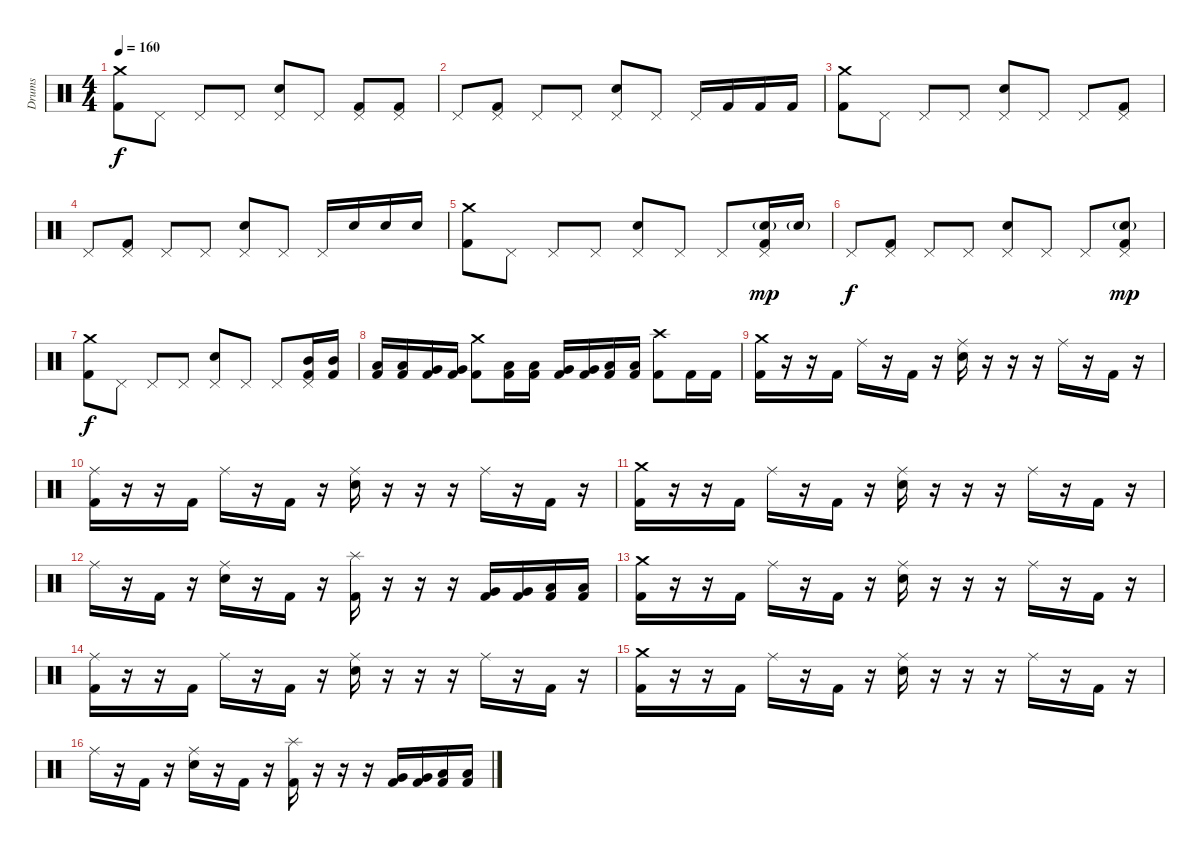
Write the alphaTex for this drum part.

\track ("Drums" "Drums") {instrument percussion}
\staff {score}
\articulation defaults
\ts (4 4)
\section ("" "")
\tempo 160
\clef neutral
\ks c
("Crash medium (hit)" "Kick (hit) 2").8{dy f} "Pedal Hi-Hat (hit)".8 "Pedal Hi-Hat (hit)".8 "Pedal Hi-Hat (hit)".8 ("Pedal Hi-Hat (hit)" "Electric Snare (hit)").8 "Pedal Hi-Hat (hit)".8 ("Pedal Hi-Hat (hit)" "Kick (hit) 2").8 ("Pedal Hi-Hat (hit)" "Kick (hit) 2").8 |
"Pedal Hi-Hat (hit)".8 ("Pedal Hi-Hat (hit)" "Kick (hit) 2").8 "Pedal Hi-Hat (hit)".8 "Pedal Hi-Hat (hit)".8 ("Pedal Hi-Hat (hit)" "Electric Snare (hit)").8 "Pedal Hi-Hat (hit)".8 "Pedal Hi-Hat (hit)".16 "Kick (hit) 2".16 "Kick (hit) 2".16 "Kick (hit) 2".16 |
("Crash medium (hit)" "Kick (hit) 2").8 "Pedal Hi-Hat (hit)".8 "Pedal Hi-Hat (hit)".8 "Pedal Hi-Hat (hit)".8 ("Pedal Hi-Hat (hit)" "Electric Snare (hit)").8 "Pedal Hi-Hat (hit)".8 "Pedal Hi-Hat (hit)".8 ("Pedal Hi-Hat (hit)" "Kick (hit) 2").8 |
"Pedal Hi-Hat (hit)".8 ("Pedal Hi-Hat (hit)" "Kick (hit) 2").8 "Pedal Hi-Hat (hit)".8 "Pedal Hi-Hat (hit)".8 ("Pedal Hi-Hat (hit)" "Electric Snare (hit)").8 "Pedal Hi-Hat (hit)".8 "Pedal Hi-Hat (hit)".16 "Electric Snare (hit)".16 "Electric Snare (hit)".16 "Electric Snare (hit)".16 |
("Crash medium (hit)" "Kick (hit) 2").8 "Pedal Hi-Hat (hit)".8 "Pedal Hi-Hat (hit)".8 "Pedal Hi-Hat (hit)".8 ("Pedal Hi-Hat (hit)" "Electric Snare (hit)").8 "Pedal Hi-Hat (hit)".8 "Pedal Hi-Hat (hit)".8 ("Pedal Hi-Hat (hit)" "Electric Snare (hit)"{g} "Kick (hit) 2").16{dy mp} "Electric Snare (hit)"{g}.16 |
"Pedal Hi-Hat (hit)".8{dy f} ("Pedal Hi-Hat (hit)" "Kick (hit) 2").8 "Pedal Hi-Hat (hit)".8 "Pedal Hi-Hat (hit)".8 ("Pedal Hi-Hat (hit)" "Electric Snare (hit)").8 "Pedal Hi-Hat (hit)".8 "Pedal Hi-Hat (hit)".8 ("Pedal Hi-Hat (hit)" "Electric Snare (hit)"{g} "Kick (hit) 2").8{dy mp} |
("Crash medium (hit)" "Kick (hit) 2").8{dy f} "Pedal Hi-Hat (hit)".8 "Pedal Hi-Hat (hit)".8 "Pedal Hi-Hat (hit)".8 ("Pedal Hi-Hat (hit)" "Electric Snare (hit)").8 "Pedal Hi-Hat (hit)".8 "Pedal Hi-Hat (hit)".8 ("Pedal Hi-Hat (hit)" "Mid Tom (hit)" "Kick (hit) 2").16 ("Mid Tom (hit)" "Kick (hit) 2").16 |
("Low Tom (hit)" "Kick (hit) 2").16 ("Low Tom (hit)" "Kick (hit) 2").16 ("Very Low Tom (hit)" "Kick (hit) 2").16 ("Very Low Tom (hit)" "Kick (hit) 2").16 ("Crash medium (hit)" "Kick (hit) 2").8 ("Low Tom (hit)" "Kick (hit) 2").16 ("Low Tom (hit)" "Kick (hit) 2").16 ("Very Low Tom (hit)" "Kick (hit) 2").16 ("Very Low Tom (hit)" "Kick (hit) 2").16 ("Low Floor Tom (hit)" "Kick (hit) 2").16 ("Low Floor Tom (hit)" "Kick (hit) 2").16 ("Crash high (hit)" "Kick (hit) 2").8 "Kick (hit) 2".16 "Kick (hit) 2".16 |
("Crash medium (hit)" "Kick (hit) 2").16 r.16 r.16 "Kick (hit) 2".16 "Ride (middle)".16 r.16 "Kick (hit) 2".16 r.16 ("Ride (middle)" "Electric Snare (hit)").16 r.16 r.16 r.16 "Ride (middle)".16 r.16 "Kick (hit) 2".16 r.16 |
("Ride (middle)" "Kick (hit) 2").16 r.16 r.16 "Kick (hit) 2".16 "Ride (middle)".16 r.16 "Kick (hit) 2".16 r.16 ("Ride (middle)" "Electric Snare (hit)").16 r.16 r.16 r.16 "Ride (middle)".16 r.16 "Kick (hit) 2".16 r.16 |
("Crash medium (hit)" "Kick (hit) 2").16 r.16 r.16 "Kick (hit) 2".16 "Ride (middle)".16 r.16 "Kick (hit) 2".16 r.16 ("Ride (middle)" "Electric Snare (hit)").16 r.16 r.16 r.16 "Ride (middle)".16 r.16 "Kick (hit) 2".16 r.16 |
"Ride (middle)".16 r.16 "Kick (hit) 2".16 r.16 ("Ride (middle)" "Electric Snare (hit)").16 r.16 "Kick (hit) 2".16 r.16 ("Splash (hit)" "Kick (hit) 2").16 r.16 r.16 r.16 ("Very Low Tom (hit)" "Kick (hit) 2").16 ("Very Low Tom (hit)" "Kick (hit) 2").16 ("Low Floor Tom (hit)" "Kick (hit) 2").16 ("Low Floor Tom (hit)" "Kick (hit) 2").16 |
("Crash medium (hit)" "Kick (hit) 2").16 r.16 r.16 "Kick (hit) 2".16 "Ride (middle)".16 r.16 "Kick (hit) 2".16 r.16 ("Ride (middle)" "Electric Snare (hit)").16 r.16 r.16 r.16 "Ride (middle)".16 r.16 "Kick (hit) 2".16 r.16 |
("Ride (middle)" "Kick (hit) 2").16 r.16 r.16 "Kick (hit) 2".16 "Ride (middle)".16 r.16 "Kick (hit) 2".16 r.16 ("Ride (middle)" "Electric Snare (hit)").16 r.16 r.16 r.16 "Ride (middle)".16 r.16 "Kick (hit) 2".16 r.16 |
("Crash medium (hit)" "Kick (hit) 2").16 r.16 r.16 "Kick (hit) 2".16 "Ride (middle)".16 r.16 "Kick (hit) 2".16 r.16 ("Ride (middle)" "Electric Snare (hit)").16 r.16 r.16 r.16 "Ride (middle)".16 r.16 "Kick (hit) 2".16 r.16 |
"Ride (middle)".16 r.16 "Kick (hit) 2".16 r.16 ("Ride (middle)" "Electric Snare (hit)").16 r.16 "Kick (hit) 2".16 r.16 ("Splash (hit)" "Kick (hit) 2").16 r.16 r.16 r.16 ("Very Low Tom (hit)" "Kick (hit) 2").16 ("Very Low Tom (hit)" "Kick (hit) 2").16 ("Low Floor Tom (hit)" "Kick (hit) 2").16 ("Low Floor Tom (hit)" "Kick (hit) 2").16
